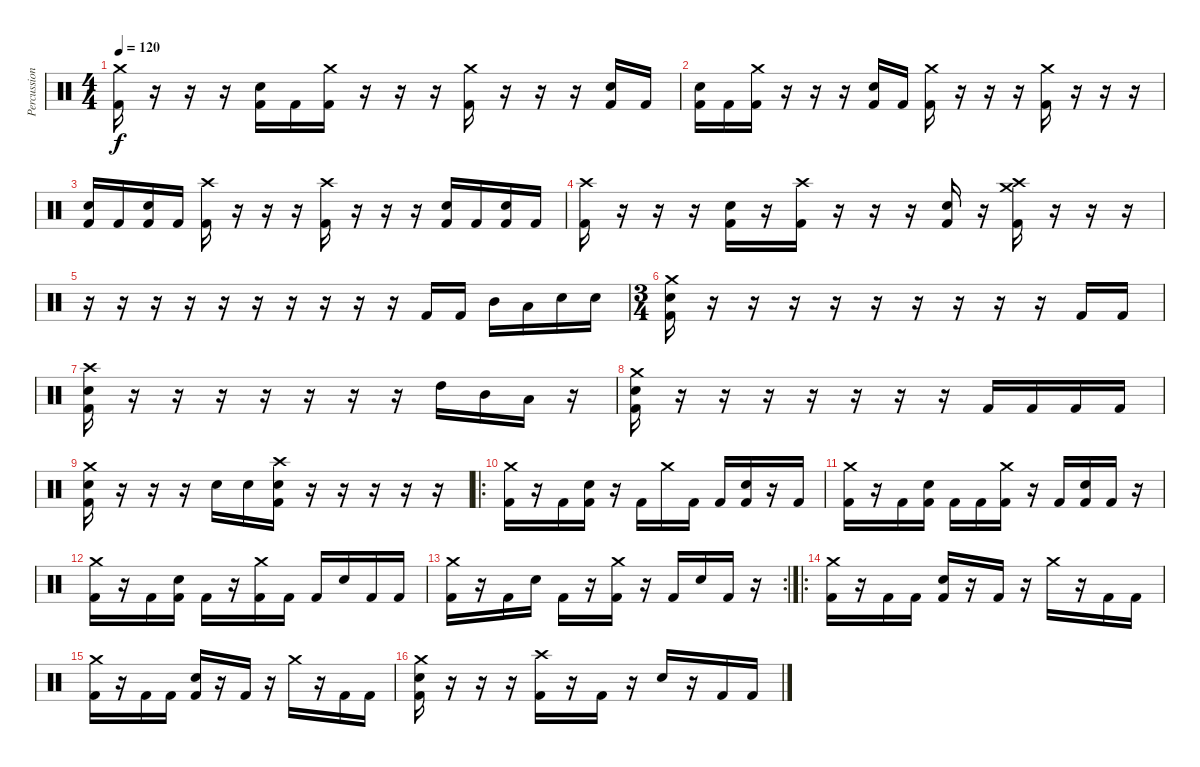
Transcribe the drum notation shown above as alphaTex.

\track ("Percussion" "Percussion") {instrument percussion}
\staff {score}
\articulation defaults
\ts (4 4)
\tempo 120
\clef neutral
\ks c
("Crash medium (hit)" "Kick (hit) 2").16{dy f} r.16 r.16 r.16 ("Electric Snare (hit)" "Kick (hit) 2").16 "Kick (hit) 2".16 ("Crash medium (hit)" "Kick (hit) 2").16 r.16 r.16 r.16 ("Crash medium (hit)" "Kick (hit) 2").16 r.16 r.16 r.16 ("Electric Snare (hit)" "Kick (hit) 2").16 "Kick (hit) 2".16 |
("Electric Snare (hit)" "Kick (hit) 2").16 "Kick (hit) 2".16 ("Crash medium (hit)" "Kick (hit) 2").16 r.16 r.16 r.16 ("Electric Snare (hit)" "Kick (hit) 2").16 "Kick (hit) 2".16 ("Crash medium (hit)" "Kick (hit) 2").16 r.16 r.16 r.16 ("Crash medium (hit)" "Kick (hit) 2").16 r.16 r.16 r.16 |
("Electric Snare (hit)" "Kick (hit) 2").16 "Kick (hit) 2".16 ("Electric Snare (hit)" "Kick (hit) 2").16 "Kick (hit) 2".16 ("Crash high (hit)" "Kick (hit) 2").16 r.16 r.16 r.16 ("Crash high (hit)" "Kick (hit) 2").16 r.16 r.16 r.16 ("Electric Snare (hit)" "Kick (hit) 2").16 "Kick (hit) 2".16 ("Electric Snare (hit)" "Kick (hit) 2").16 "Kick (hit) 2".16 |
("Crash high (hit)" "Kick (hit) 2").16 r.16 r.16 r.16 ("Electric Snare (hit)" "Kick (hit) 2").16 r.16 ("Crash high (hit)" "Kick (hit) 2").16 r.16 r.16 r.16 ("Electric Snare (hit)" "Kick (hit) 2").16 r.16 ("Crash high (hit)" "Crash medium (hit)" "Kick (hit) 2").16 r.16 r.16 r.16 |
r.16 r.16 r.16 r.16 r.16 r.16 r.16 r.16 r.16 r.16 "Kick (hit) 2".16 "Kick (hit) 2".16 "Mid Tom (hit)".16 "Low Tom (hit)".16 "Electric Snare (hit)".16 "Electric Snare (hit)".16 |
\ts (3 4)
("Crash medium (hit)" "Electric Snare (hit)" "Kick (hit) 2").16 r.16 r.16 r.16 r.16 r.16 r.16 r.16 r.16 r.16 "Kick (hit) 2".16 "Kick (hit) 2".16 |
("Crash high (hit)" "Electric Snare (hit)" "Kick (hit) 2").16 r.16 r.16 r.16 r.16 r.16 r.16 r.16 "High Tom (hit)".16 "Mid Tom (hit)".16 "Low Tom (hit)".16 r.16 |
("Crash medium (hit)" "Electric Snare (hit)" "Kick (hit) 2").16 r.16 r.16 r.16 r.16 r.16 r.16 r.16 "Kick (hit) 2".16 "Kick (hit) 2".16 "Kick (hit) 2".16 "Kick (hit) 2".16 |
("Crash medium (hit)" "Electric Snare (hit)" "Kick (hit) 2").16 r.16 r.16 r.16 "Electric Snare (hit)".16 "Electric Snare (hit)".16 ("Crash high (hit)" "Electric Snare (hit)" "Kick (hit) 2").16 r.16 r.16 r.16 r.16 r.16 |
\ro
("Crash medium (hit)" "Kick (hit) 2").16 r.16 "Kick (hit) 2".16 ("Electric Snare (hit)" "Kick (hit) 2").16 r.16 "Kick (hit) 2".16 "Crash medium (hit)".16 "Kick (hit) 2".16 "Kick (hit) 2".16 ("Electric Snare (hit)" "Kick (hit) 2").16 r.16 "Kick (hit) 2".16 |
("Crash medium (hit)" "Kick (hit) 2").16 r.16 "Kick (hit) 2".16 ("Electric Snare (hit)" "Kick (hit) 2").16 "Kick (hit) 2".16 "Kick (hit) 2".16 ("Crash medium (hit)" "Kick (hit) 2").16 r.16 "Kick (hit) 2".16 ("Electric Snare (hit)" "Kick (hit) 2").16 "Kick (hit) 2".16 r.16 |
("Crash medium (hit)" "Kick (hit) 2").16 r.16 "Kick (hit) 2".16 ("Electric Snare (hit)" "Kick (hit) 2").16 "Kick (hit) 2".16 r.16 ("Crash medium (hit)" "Kick (hit) 2").16 "Kick (hit) 2".16 "Kick (hit) 2".16 "Electric Snare (hit)".16 "Kick (hit) 2".16 "Kick (hit) 2".16 |
\rc 2
("Crash medium (hit)" "Kick (hit) 2").16 r.16 "Kick (hit) 2".16 "Electric Snare (hit)".16 "Kick (hit) 2".16 r.16 ("Crash medium (hit)" "Kick (hit) 2").16 r.16 "Kick (hit) 2".16 "Electric Snare (hit)".16 "Kick (hit) 2".16 r.16 |
\ro
("Crash medium (hit)" "Kick (hit) 2").16 r.16 "Kick (hit) 2".16 "Kick (hit) 2".16 ("Electric Snare (hit)" "Kick (hit) 2").16 r.16 "Kick (hit) 2".16 r.16 "Crash medium (hit)".16 r.16 "Kick (hit) 2".16 "Kick (hit) 2".16 |
("Crash medium (hit)" "Kick (hit) 2").16 r.16 "Kick (hit) 2".16 "Kick (hit) 2".16 ("Electric Snare (hit)" "Kick (hit) 2").16 r.16 "Kick (hit) 2".16 r.16 "Crash medium (hit)".16 r.16 "Kick (hit) 2".16 "Kick (hit) 2".16 |
("Crash medium (hit)" "Electric Snare (hit)" "Kick (hit) 2").16 r.16 r.16 r.16 ("Crash high (hit)" "Kick (hit) 2").16 r.16 "Kick (hit) 2".16 r.16 "Electric Snare (hit)".16 r.16 "Kick (hit) 2".16 "Kick (hit) 2".16
